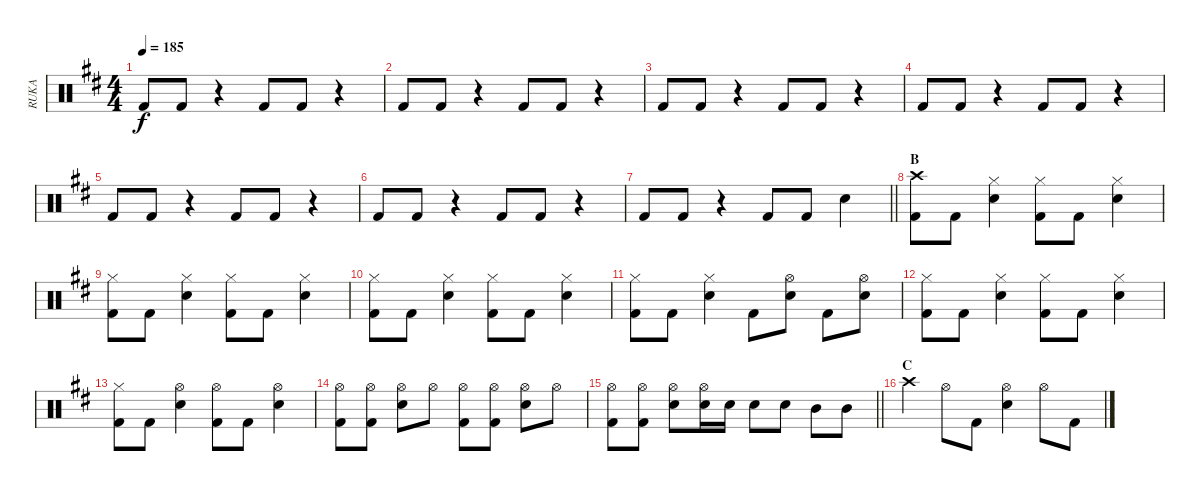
\track ("RUKA" "RUKA") {instrument percussion}
\staff {score}
\articulation defaults
\ts (4 4)
\tempo 185
\clef neutral
\ks d "Kick (hit) 2".8{dy f} "Kick (hit) 2".8
r.4 "Kick (hit) 2".8 "Kick (hit) 2".8 r.4 |
"Kick (hit) 2".8 "Kick (hit) 2".8 r.4 "Kick (hit) 2".8 "Kick (hit) 2".8 r.4 |
"Kick (hit) 2".8 "Kick (hit) 2".8 r.4 "Kick (hit) 2".8 "Kick (hit) 2".8 r.4 |
"Kick (hit) 2".8 "Kick (hit) 2".8 r.4 "Kick (hit) 2".8 "Kick (hit) 2".8 r.4 |
"Kick (hit) 2".8 "Kick (hit) 2".8 r.4 "Kick (hit) 2".8 "Kick (hit) 2".8 r.4 |
"Kick (hit) 2".8 "Kick (hit) 2".8 r.4 "Kick (hit) 2".8 "Kick (hit) 2".8 r.4 |
\barLineRight lightlight "Kick (hit) 2".8 "Kick (hit) 2".8
r.4 "Kick (hit) 2".8 "Kick (hit) 2".8 "Snare (hit) 2".4 |
\section ("" "B")
("Crash high (hit)" "Kick (hit) 2").8 "Kick (hit) 2".8 ("Hi-Hat (closed)" "Snare (hit) 2").4 ("Hi-Hat (closed)" "Kick (hit) 2").8 "Kick (hit) 2".8 ("Hi-Hat (closed)" "Snare (hit) 2").4 |
("Hi-Hat (closed)" "Kick (hit) 2").8 "Kick (hit) 2".8 ("Hi-Hat (closed)" "Snare (hit) 2").4 ("Hi-Hat (closed)" "Kick (hit) 2").8 "Kick (hit) 2".8 ("Hi-Hat (closed)" "Snare (hit) 2").4 |
("Hi-Hat (closed)" "Kick (hit) 2").8 "Kick (hit) 2".8 ("Hi-Hat (closed)" "Snare (hit) 2").4 ("Hi-Hat (closed)" "Kick (hit) 2").8 "Kick (hit) 2".8 ("Hi-Hat (closed)" "Snare (hit) 2").4 |
("Hi-Hat (closed)" "Kick (hit) 2").8 "Kick (hit) 2".8 ("Hi-Hat (closed)" "Snare (hit) 2").4 "Kick (hit) 2".8 ("Hi-Hat (open)" "Snare (hit) 2").8 "Kick (hit) 2".8 ("Hi-Hat (open)" "Snare (hit) 2").8 |
("Hi-Hat (closed)" "Kick (hit) 2").8 "Kick (hit) 2".8 ("Hi-Hat (closed)" "Snare (hit) 2").4 ("Hi-Hat (closed)" "Kick (hit) 2").8 "Kick (hit) 2".8 ("Hi-Hat (closed)" "Snare (hit) 2").4 |
("Hi-Hat (closed)" "Kick (hit) 2").8 "Kick (hit) 2".8 ("Hi-Hat (open)" "Snare (hit) 2").4 ("Hi-Hat (open)" "Kick (hit) 2").8 "Kick (hit) 2".8 ("Hi-Hat (open)" "Snare (hit) 2").4 |
("Hi-Hat (open)" "Kick (hit) 2").8 ("Hi-Hat (open)" "Kick (hit) 2").8 ("Hi-Hat (open)" "Snare (hit) 2").8 "Hi-Hat (open)".8 ("Hi-Hat (open)" "Kick (hit) 2").8 ("Hi-Hat (open)" "Kick (hit) 2").8 ("Hi-Hat (open)" "Snare (hit) 2").8 "Hi-Hat (open)".8 |
\barLineRight lightlight
("Hi-Hat (open)" "Kick (hit) 2").8 ("Hi-Hat (open)" "Kick (hit) 2").8 ("Hi-Hat (open)" "Snare (hit) 2").8 ("Hi-Hat (open)" "Snare (hit) 2").16 "Snare (hit) 2".16 "Snare (hit) 2".8 "Snare (hit) 2".8 "Mid Tom (hit)".8 "Mid Tom (hit)".8 |
\section ("" "C")
"Crash high (hit)".4 "Hi-Hat (open)".8 "Kick (hit) 2".8 ("Hi-Hat (open)" "Snare (hit) 2").4 "Hi-Hat (open)".8 "Kick (hit) 2".8
